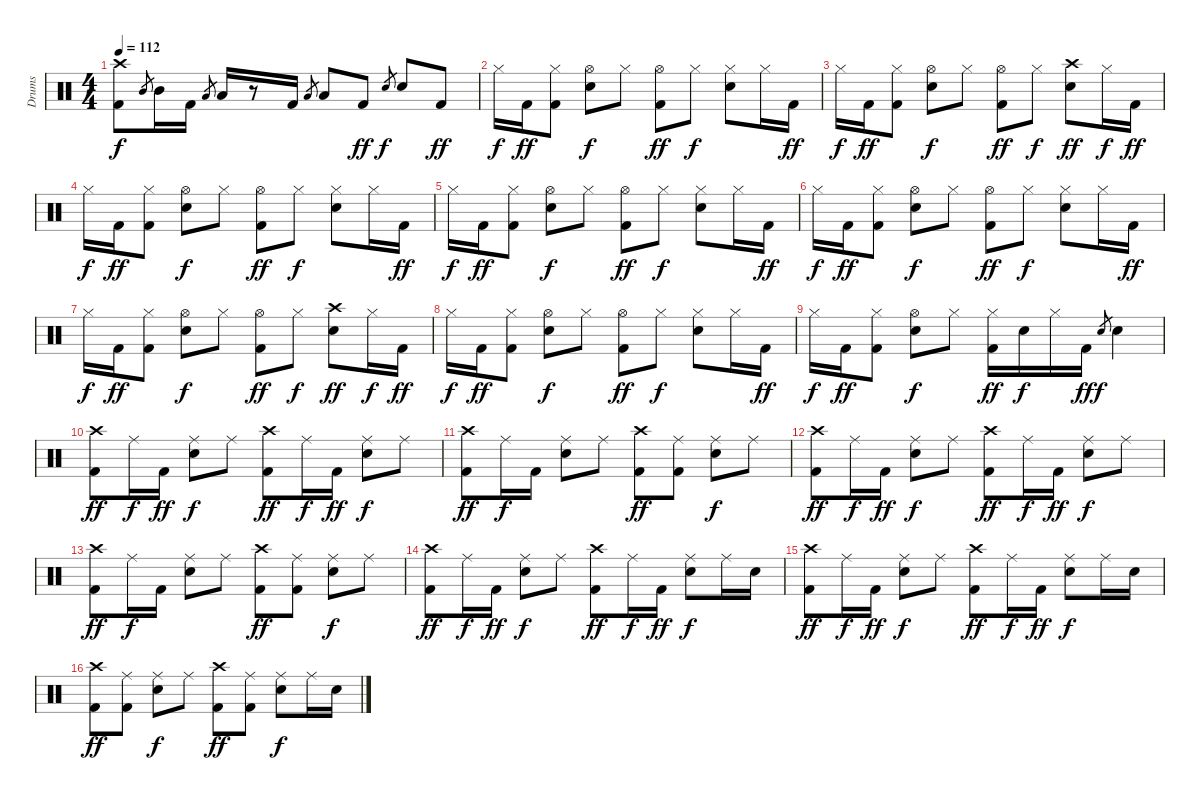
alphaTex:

\track ("Drums" "Drums") {instrument percussion}
\staff {score}
\articulation defaults
\ts (4 4)
\tempo 112
\clef neutral
\ks c
("Crash high (hit)" "Kick (hit) 2").8{dy f} "Mid Tom (hit)".8{gr} "Mid Tom (hit)".16 "Kick (hit) 2".16 "Low Tom (hit)".8{gr} "Low Tom (hit)".16 r.8 "Kick (hit) 2".16 "Low Tom (hit)".8{gr} "Low Tom (hit)".8 "Kick (hit) 2".8{dy ff} "Snare (hit) 2".8{gr dy f} "Snare (hit) 2".8 "Kick (hit) 2".8{dy ff} |
"Hi-Hat (closed)".16{dy f} "Kick (hit) 2".16{dy ff} ("Hi-Hat (closed)" "Kick (hit) 2").8 ("Hi-Hat (open)" "Snare (hit) 2").8{dy f} "Hi-Hat (closed)".8 ("Hi-Hat (open)" "Kick (hit) 2").8{dy ff} "Hi-Hat (closed)".8{dy f} ("Hi-Hat (closed)" "Snare (hit) 2").8 "Hi-Hat (closed)".16 "Kick (hit) 2".16{dy ff} |
"Hi-Hat (closed)".16{dy f} "Kick (hit) 2".16{dy ff} ("Hi-Hat (closed)" "Kick (hit) 2").8 ("Hi-Hat (open)" "Snare (hit) 2").8{dy f} "Hi-Hat (closed)".8 ("Hi-Hat (open)" "Kick (hit) 2").8{dy ff} "Hi-Hat (closed)".8{dy f} ("Crash high (hit)" "Snare (hit) 2").8{dy ff} "Hi-Hat (closed)".16{dy f} "Kick (hit) 2".16{dy ff} |
"Hi-Hat (closed)".16{dy f} "Kick (hit) 2".16{dy ff} ("Hi-Hat (closed)" "Kick (hit) 2").8 ("Hi-Hat (open)" "Snare (hit) 2").8{dy f} "Hi-Hat (closed)".8 ("Hi-Hat (open)" "Kick (hit) 2").8{dy ff} "Hi-Hat (closed)".8{dy f} ("Hi-Hat (closed)" "Snare (hit) 2").8 "Hi-Hat (closed)".16 "Kick (hit) 2".16{dy ff} |
"Hi-Hat (closed)".16{dy f} "Kick (hit) 2".16{dy ff} ("Hi-Hat (closed)" "Kick (hit) 2").8 ("Hi-Hat (open)" "Snare (hit) 2").8{dy f} "Hi-Hat (closed)".8 ("Hi-Hat (open)" "Kick (hit) 2").8{dy ff} "Hi-Hat (closed)".8{dy f} ("Hi-Hat (closed)" "Snare (hit) 2").8 "Hi-Hat (closed)".16 "Kick (hit) 2".16{dy ff} |
"Hi-Hat (closed)".16{dy f} "Kick (hit) 2".16{dy ff} ("Hi-Hat (closed)" "Kick (hit) 2").8 ("Hi-Hat (open)" "Snare (hit) 2").8{dy f} "Hi-Hat (closed)".8 ("Hi-Hat (open)" "Kick (hit) 2").8{dy ff} "Hi-Hat (closed)".8{dy f} ("Hi-Hat (closed)" "Snare (hit) 2").8 "Hi-Hat (closed)".16 "Kick (hit) 2".16{dy ff} |
"Hi-Hat (closed)".16{dy f} "Kick (hit) 2".16{dy ff} ("Hi-Hat (closed)" "Kick (hit) 2").8 ("Hi-Hat (open)" "Snare (hit) 2").8{dy f} "Hi-Hat (closed)".8 ("Hi-Hat (open)" "Kick (hit) 2").8{dy ff} "Hi-Hat (closed)".8{dy f} ("Crash high (hit)" "Snare (hit) 2").8{dy ff} "Hi-Hat (closed)".16{dy f} "Kick (hit) 2".16{dy ff} |
"Hi-Hat (closed)".16{dy f} "Kick (hit) 2".16{dy ff} ("Hi-Hat (closed)" "Kick (hit) 2").8 ("Hi-Hat (open)" "Snare (hit) 2").8{dy f} "Hi-Hat (closed)".8 ("Hi-Hat (open)" "Kick (hit) 2").8{dy ff} "Hi-Hat (closed)".8{dy f} ("Hi-Hat (closed)" "Snare (hit) 2").8 "Hi-Hat (closed)".16 "Kick (hit) 2".16{dy ff} |
"Hi-Hat (closed)".16{dy f} "Kick (hit) 2".16{dy ff} ("Hi-Hat (closed)" "Kick (hit) 2").8 ("Hi-Hat (open)" "Snare (hit) 2").8{dy f} "Hi-Hat (closed)".8 ("Hi-Hat (closed)" "Kick (hit) 2").16{dy ff} "Snare (hit) 2".16{dy f} "Hi-Hat (closed)".16 "Kick (hit) 2".16{dy ff} "Snare (hit) 2".8{gr dy f} "Snare (hit) 2".4 |
("Crash high (hit)" "Kick (hit) 2").8{dy ff} "Ride (middle)".16{dy f} "Kick (hit) 2".16{dy ff} ("Ride (middle)" "Snare (hit) 2").8{dy f} "Ride (middle)".8 ("Crash high (hit)" "Kick (hit) 2").8{dy ff} "Ride (middle)".16{dy f} "Kick (hit) 2".16{dy ff} ("Ride (middle)" "Snare (hit) 2").8{dy f} "Ride (middle)".8 |
("Crash high (hit)" "Kick (hit) 2").8{dy ff} "Ride (middle)".16{dy f} "Kick (hit) 2".16 ("Ride (middle)" "Snare (hit) 2").8 "Ride (middle)".8 ("Crash high (hit)" "Kick (hit) 2").8{dy ff} ("Ride (middle)" "Kick (hit) 2").8 ("Ride (middle)" "Snare (hit) 2").8{dy f} "Ride (middle)".8 |
("Crash high (hit)" "Kick (hit) 2").8{dy ff} "Ride (middle)".16{dy f} "Kick (hit) 2".16{dy ff} ("Ride (middle)" "Snare (hit) 2").8{dy f} "Ride (middle)".8 ("Crash high (hit)" "Kick (hit) 2").8{dy ff} "Ride (middle)".16{dy f} "Kick (hit) 2".16{dy ff} ("Ride (middle)" "Snare (hit) 2").8{dy f} "Ride (middle)".8 |
("Crash high (hit)" "Kick (hit) 2").8{dy ff} "Ride (middle)".16{dy f} "Kick (hit) 2".16 ("Ride (middle)" "Snare (hit) 2").8 "Ride (middle)".8 ("Crash high (hit)" "Kick (hit) 2").8{dy ff} ("Ride (middle)" "Kick (hit) 2").8 ("Ride (middle)" "Snare (hit) 2").8{dy f} "Ride (middle)".8 |
("Crash high (hit)" "Kick (hit) 2").8{dy ff} "Ride (middle)".16{dy f} "Kick (hit) 2".16{dy ff} ("Ride (middle)" "Snare (hit) 2").8{dy f} "Ride (middle)".8 ("Crash high (hit)" "Kick (hit) 2").8{dy ff} "Ride (middle)".16{dy f} "Kick (hit) 2".16{dy ff} ("Ride (middle)" "Snare (hit) 2").8{dy f} "Ride (middle)".16 "Snare (hit) 2".16 |
("Crash high (hit)" "Kick (hit) 2").8{dy ff} "Ride (middle)".16{dy f} "Kick (hit) 2".16{dy ff} ("Ride (middle)" "Snare (hit) 2").8{dy f} "Ride (middle)".8 ("Crash high (hit)" "Kick (hit) 2").8{dy ff} "Ride (middle)".16{dy f} "Kick (hit) 2".16{dy ff} ("Ride (middle)" "Snare (hit) 2").8{dy f} "Ride (middle)".16 "Snare (hit) 2".16 |
("Crash high (hit)" "Kick (hit) 2").8{dy ff} ("Ride (middle)" "Kick (hit) 2").8 ("Ride (middle)" "Snare (hit) 2").8{dy f} "Ride (middle)".8 ("Crash high (hit)" "Kick (hit) 2").8{dy ff} ("Ride (middle)" "Kick (hit) 2").8 ("Ride (middle)" "Snare (hit) 2").8{dy f} "Ride (middle)".16 "Snare (hit) 2".16
